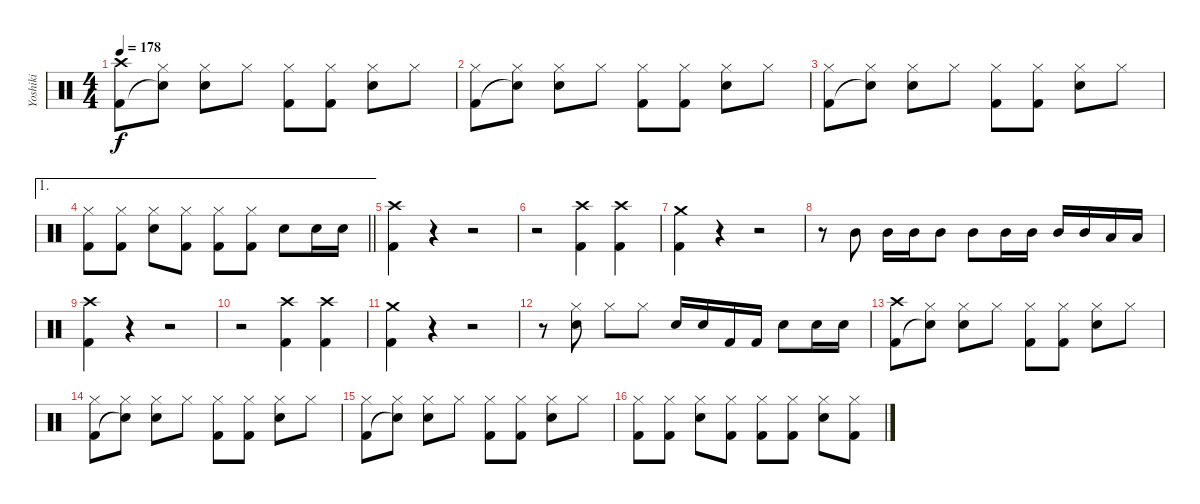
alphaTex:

\track ("Yoshiki" "Yoshiki") {instrument percussion}
\staff {score}
\articulation defaults
\ts (4 4)
\tempo 178
\clef neutral
\ks c
("Crash high (hit)" "Kick (hit) 2").8{dy f} ("Hi-Hat (closed)" "Snare (hit)"{t}).8 ("Hi-Hat (closed)" "Snare (hit) 2").8 "Hi-Hat (closed)".8 ("Hi-Hat (closed)" "Kick (hit) 2").8 ("Hi-Hat (closed)" "Kick (hit) 2").8 ("Hi-Hat (closed)" "Snare (hit) 2").8 "Hi-Hat (closed)".8 |
("Hi-Hat (closed)" "Kick (hit) 2").8 ("Hi-Hat (closed)" "Snare (hit)"{t}).8 ("Hi-Hat (closed)" "Snare (hit) 2").8 "Hi-Hat (closed)".8 ("Hi-Hat (closed)" "Kick (hit) 2").8 ("Hi-Hat (closed)" "Kick (hit) 2").8 ("Hi-Hat (closed)" "Snare (hit) 2").8 "Hi-Hat (closed)".8 |
("Hi-Hat (closed)" "Kick (hit) 2").8 ("Hi-Hat (closed)" "Snare (hit)"{t}).8 ("Hi-Hat (closed)" "Snare (hit) 2").8 "Hi-Hat (closed)".8 ("Hi-Hat (closed)" "Kick (hit) 2").8 ("Hi-Hat (closed)" "Kick (hit) 2").8 ("Hi-Hat (closed)" "Snare (hit) 2").8 "Hi-Hat (closed)".8 |
\ae 1
\barLineRight lightlight
("Hi-Hat (closed)" "Kick (hit) 2").8 ("Hi-Hat (closed)" "Kick (hit) 2").8 ("Hi-Hat (closed)" "Snare (hit) 2").8 ("Hi-Hat (closed)" "Kick (hit) 2").8 ("Hi-Hat (closed)" "Kick (hit) 2").8 ("Hi-Hat (closed)" "Kick (hit) 2").8 "Snare (hit) 2".8 "Snare (hit) 2".16 "Snare (hit) 2".16 |
\section ("" "")
("Crash high (hit)" "Kick (hit) 2").4 r.4 r.2 |
r.2 ("Crash high (hit)" "Kick (hit) 2").4 ("Crash high (hit)" "Kick (hit) 2").4 |
("Crash medium (hit)" "Kick (hit) 2").4 r.4 r.2 |
r.8 "Mid Tom (hit)".8 "Mid Tom (hit)".16 "Mid Tom (hit)".16 "Mid Tom (hit)".8 "Mid Tom (hit)".8 "Mid Tom (hit)".16 "Mid Tom (hit)".16 "Mid Tom (hit)".16 "Mid Tom (hit)".16 "Low Tom (hit)".16 "Low Tom (hit)".16 |
("Crash high (hit)" "Kick (hit) 2").4 r.4 r.2 |
r.2 ("Crash high (hit)" "Kick (hit) 2").4 ("Crash high (hit)" "Kick (hit) 2").4 |
("Crash medium (hit)" "Kick (hit) 2").4 r.4 r.2 |
r.8 ("Hi-Hat (closed)" "Snare (hit) 2").8 "Hi-Hat (closed)".8 "Hi-Hat (closed)".8 "Snare (hit) 2".16 "Snare (hit) 2".16 "Kick (hit) 2".16 "Kick (hit) 2".16 "Snare (hit) 2".8 "Snare (hit) 2".16 "Snare (hit) 2".16 |
("Crash high (hit)" "Kick (hit) 2").8 ("Hi-Hat (closed)" "Snare (hit)"{t}).8 ("Hi-Hat (closed)" "Snare (hit) 2").8 "Hi-Hat (closed)".8 ("Hi-Hat (closed)" "Kick (hit) 2").8 ("Hi-Hat (closed)" "Kick (hit) 2").8 ("Hi-Hat (closed)" "Snare (hit) 2").8 "Hi-Hat (closed)".8 |
("Hi-Hat (closed)" "Kick (hit) 2").8 ("Hi-Hat (closed)" "Snare (hit)"{t}).8 ("Hi-Hat (closed)" "Snare (hit) 2").8 "Hi-Hat (closed)".8 ("Hi-Hat (closed)" "Kick (hit) 2").8 ("Hi-Hat (closed)" "Kick (hit) 2").8 ("Hi-Hat (closed)" "Snare (hit) 2").8 "Hi-Hat (closed)".8 |
("Hi-Hat (closed)" "Kick (hit) 2").8 ("Hi-Hat (closed)" "Snare (hit)"{t}).8 ("Hi-Hat (closed)" "Snare (hit) 2").8 "Hi-Hat (closed)".8 ("Hi-Hat (closed)" "Kick (hit) 2").8 ("Hi-Hat (closed)" "Kick (hit) 2").8 ("Hi-Hat (closed)" "Snare (hit) 2").8 "Hi-Hat (closed)".8 |
("Hi-Hat (closed)" "Kick (hit) 2").8 ("Hi-Hat (closed)" "Kick (hit) 2").8 ("Hi-Hat (closed)" "Snare (hit) 2").8 ("Hi-Hat (closed)" "Kick (hit) 2").8 ("Hi-Hat (closed)" "Kick (hit) 2").8 ("Hi-Hat (closed)" "Kick (hit) 2").8 ("Hi-Hat (closed)" "Snare (hit) 2").8 ("Hi-Hat (closed)" "Kick (hit) 2").8
